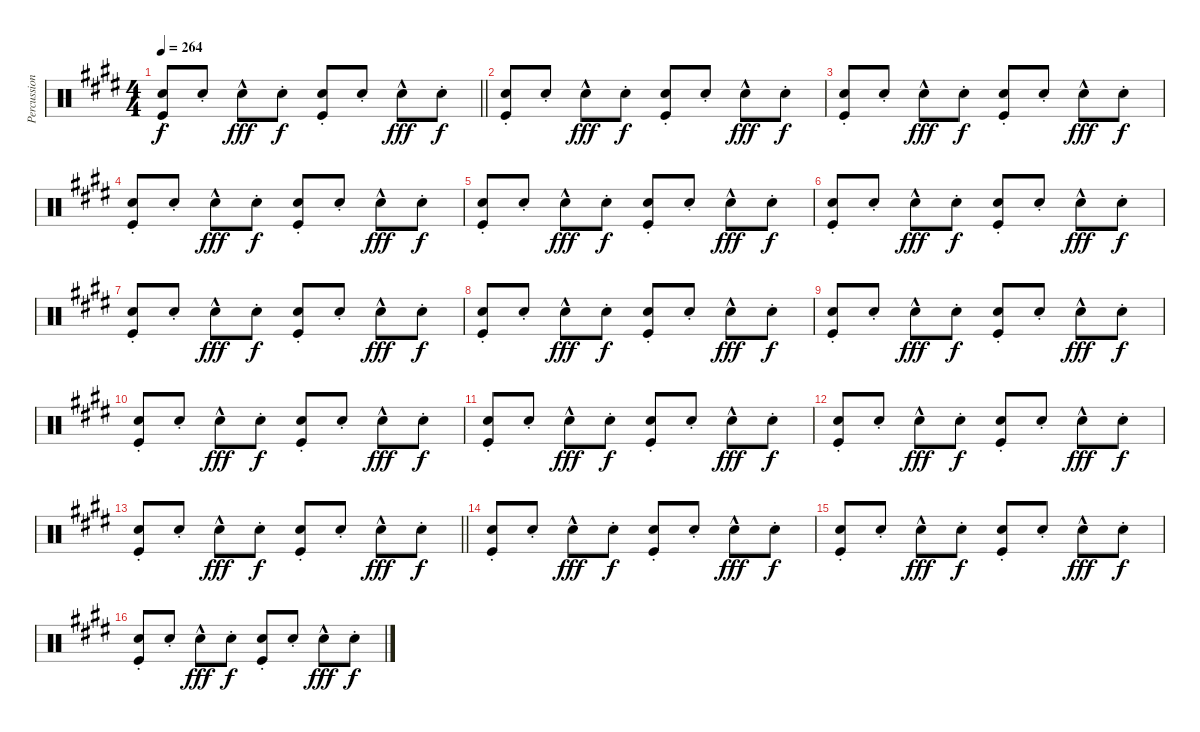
\track ("Percussion" "Percussion") {instrument percussion}
\staff {score}
\articulation defaults
\ts (4 4)
\tempo 264
\clef neutral
\barLineRight lightlight
\ks e
("Snare (hit) 2"{st} "Kick (hit)").8{dy f} "Snare (hit) 2"{st}.8 "Snare (hit) 2"{hac}.8{dy fff} "Snare (hit) 2"{st}.8{dy f} ("Snare (hit) 2"{st} "Kick (hit)").8 "Snare (hit) 2"{st}.8 "Snare (hit) 2"{hac}.8{dy fff} "Snare (hit) 2"{st}.8{dy f} |
("Snare (hit) 2"{st} "Kick (hit)").8 "Snare (hit) 2"{st}.8 "Snare (hit) 2"{hac}.8{dy fff} "Snare (hit) 2"{st}.8{dy f} ("Snare (hit) 2"{st} "Kick (hit)").8 "Snare (hit) 2"{st}.8 "Snare (hit) 2"{hac}.8{dy fff} "Snare (hit) 2"{st}.8{dy f} |
("Snare (hit) 2"{st} "Kick (hit)").8 "Snare (hit) 2"{st}.8 "Snare (hit) 2"{hac}.8{dy fff} "Snare (hit) 2"{st}.8{dy f} ("Snare (hit) 2"{st} "Kick (hit)").8 "Snare (hit) 2"{st}.8 "Snare (hit) 2"{hac}.8{dy fff} "Snare (hit) 2"{st}.8{dy f} |
("Snare (hit) 2"{st} "Kick (hit)").8 "Snare (hit) 2"{st}.8 "Snare (hit) 2"{hac}.8{dy fff} "Snare (hit) 2"{st}.8{dy f} ("Snare (hit) 2"{st} "Kick (hit)").8 "Snare (hit) 2"{st}.8 "Snare (hit) 2"{hac}.8{dy fff} "Snare (hit) 2"{st}.8{dy f} |
("Snare (hit) 2"{st} "Kick (hit)").8 "Snare (hit) 2"{st}.8 "Snare (hit) 2"{hac}.8{dy fff} "Snare (hit) 2"{st}.8{dy f} ("Snare (hit) 2"{st} "Kick (hit)").8 "Snare (hit) 2"{st}.8 "Snare (hit) 2"{hac}.8{dy fff} "Snare (hit) 2"{st}.8{dy f} |
("Snare (hit) 2"{st} "Kick (hit)").8 "Snare (hit) 2"{st}.8 "Snare (hit) 2"{hac}.8{dy fff} "Snare (hit) 2"{st}.8{dy f} ("Snare (hit) 2"{st} "Kick (hit)").8 "Snare (hit) 2"{st}.8 "Snare (hit) 2"{hac}.8{dy fff} "Snare (hit) 2"{st}.8{dy f} |
("Snare (hit) 2"{st} "Kick (hit)").8 "Snare (hit) 2"{st}.8 "Snare (hit) 2"{hac}.8{dy fff} "Snare (hit) 2"{st}.8{dy f} ("Snare (hit) 2"{st} "Kick (hit)").8 "Snare (hit) 2"{st}.8 "Snare (hit) 2"{hac}.8{dy fff} "Snare (hit) 2"{st}.8{dy f} |
("Snare (hit) 2"{st} "Kick (hit)").8 "Snare (hit) 2"{st}.8 "Snare (hit) 2"{hac}.8{dy fff} "Snare (hit) 2"{st}.8{dy f} ("Snare (hit) 2"{st} "Kick (hit)").8 "Snare (hit) 2"{st}.8 "Snare (hit) 2"{hac}.8{dy fff} "Snare (hit) 2"{st}.8{dy f} |
("Snare (hit) 2"{st} "Kick (hit)").8 "Snare (hit) 2"{st}.8 "Snare (hit) 2"{hac}.8{dy fff} "Snare (hit) 2"{st}.8{dy f} ("Snare (hit) 2"{st} "Kick (hit)").8 "Snare (hit) 2"{st}.8 "Snare (hit) 2"{hac}.8{dy fff} "Snare (hit) 2"{st}.8{dy f} |
("Snare (hit) 2"{st} "Kick (hit)").8 "Snare (hit) 2"{st}.8 "Snare (hit) 2"{hac}.8{dy fff} "Snare (hit) 2"{st}.8{dy f} ("Snare (hit) 2"{st} "Kick (hit)").8 "Snare (hit) 2"{st}.8 "Snare (hit) 2"{hac}.8{dy fff} "Snare (hit) 2"{st}.8{dy f} |
("Snare (hit) 2"{st} "Kick (hit)").8 "Snare (hit) 2"{st}.8 "Snare (hit) 2"{hac}.8{dy fff} "Snare (hit) 2"{st}.8{dy f} ("Snare (hit) 2"{st} "Kick (hit)").8 "Snare (hit) 2"{st}.8 "Snare (hit) 2"{hac}.8{dy fff} "Snare (hit) 2"{st}.8{dy f} |
("Snare (hit) 2"{st} "Kick (hit)").8 "Snare (hit) 2"{st}.8 "Snare (hit) 2"{hac}.8{dy fff} "Snare (hit) 2"{st}.8{dy f} ("Snare (hit) 2"{st} "Kick (hit)").8 "Snare (hit) 2"{st}.8 "Snare (hit) 2"{hac}.8{dy fff} "Snare (hit) 2"{st}.8{dy f} |
\barLineRight lightlight
("Snare (hit) 2"{st} "Kick (hit)").8 "Snare (hit) 2"{st}.8 "Snare (hit) 2"{hac}.8{dy fff} "Snare (hit) 2"{st}.8{dy f} ("Snare (hit) 2"{st} "Kick (hit)").8 "Snare (hit) 2"{st}.8 "Snare (hit) 2"{hac}.8{dy fff} "Snare (hit) 2"{st}.8{dy f} |
("Snare (hit) 2"{st} "Kick (hit)").8 "Snare (hit) 2"{st}.8 "Snare (hit) 2"{hac}.8{dy fff} "Snare (hit) 2"{st}.8{dy f} ("Snare (hit) 2"{st} "Kick (hit)").8 "Snare (hit) 2"{st}.8 "Snare (hit) 2"{hac}.8{dy fff} "Snare (hit) 2"{st}.8{dy f} |
("Snare (hit) 2"{st} "Kick (hit)").8 "Snare (hit) 2"{st}.8 "Snare (hit) 2"{hac}.8{dy fff} "Snare (hit) 2"{st}.8{dy f} ("Snare (hit) 2"{st} "Kick (hit)").8 "Snare (hit) 2"{st}.8 "Snare (hit) 2"{hac}.8{dy fff} "Snare (hit) 2"{st}.8{dy f} |
("Snare (hit) 2"{st} "Kick (hit)").8 "Snare (hit) 2"{st}.8 "Snare (hit) 2"{hac}.8{dy fff} "Snare (hit) 2"{st}.8{dy f} ("Snare (hit) 2"{st} "Kick (hit)").8 "Snare (hit) 2"{st}.8 "Snare (hit) 2"{hac}.8{dy fff} "Snare (hit) 2"{st}.8{dy f}
